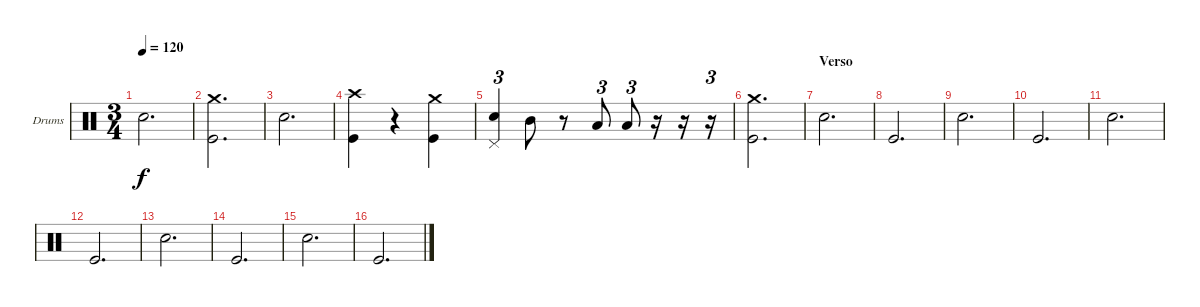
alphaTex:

\bracketExtendMode groupsimilarinstruments
\firstSystemTrackNameOrientation horizontal
\otherSystemsTrackNameOrientation horizontal
\track ("Drumkit" "Drums") {instrument percussion}
\staff {score}
\articulation defaults
\ts (3 4)
\tempo 120
\clef neutral
\ks c "Snare (hit) 2".2{d dy f}
|
("Crash medium (hit)" "Kick (hit)").2{d} |
"Snare (hit) 2".2{d} |
("Crash high (hit)" "Kick (hit)").4 r.4 ("Crash medium (hit)" "Kick (hit)").4 |
("Snare (hit) 2" "Pedal Hi-Hat (hit)").4{tu (3 2)} "Mid Tom (hit)".8 r.8 "Low Tom (hit)".8{tu (3 2)} "Low Tom (hit)".8{tu (3 2)} r.16 r.16 r.16{tu (3 2)} |
("Crash medium (hit)" "Kick (hit)").2{d} |
\section ("" "Verso")
"Snare (hit) 2".2{d} |
"Kick (hit)".2{d} |
"Snare (hit) 2".2{d} |
"Kick (hit)".2{d} |
"Snare (hit) 2".2{d} |
"Kick (hit)".2{d} |
"Snare (hit) 2".2{d} |
"Kick (hit)".2{d} |
"Snare (hit) 2".2{d} |
"Kick (hit)".2{d}
